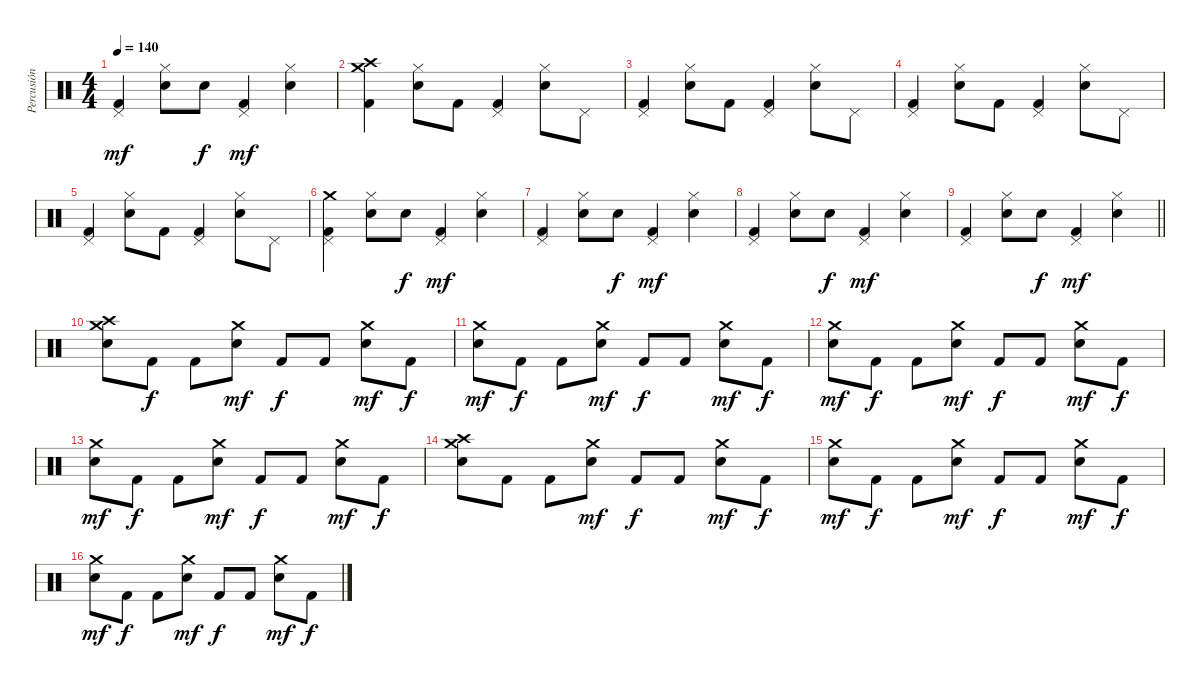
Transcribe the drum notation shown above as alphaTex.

\track ("Percusión" "Percusión") {instrument percussion}
\staff {score}
\articulation defaults
\ts (4 4)
\tempo 140
\clef neutral
\ks c
("Pedal Hi-Hat (hit)" "Kick (hit) 2").4{dy mf} ("Hi-Hat (closed)" "Electric Snare (hit)").8 "Electric Snare (hit)".8{dy f} ("Pedal Hi-Hat (hit)" "Kick (hit) 2").4{dy mf} ("Hi-Hat (closed)" "Electric Snare (hit)").4 |
("Crash high (hit)" "Crash medium (hit)" "Kick (hit) 2").4 ("Hi-Hat (closed)" "Electric Snare (hit)").8 "Kick (hit) 2".8 ("Pedal Hi-Hat (hit)" "Kick (hit) 2").4 ("Hi-Hat (closed)" "Electric Snare (hit)").8 "Pedal Hi-Hat (hit)".8 |
("Pedal Hi-Hat (hit)" "Kick (hit) 2").4 ("Hi-Hat (closed)" "Electric Snare (hit)").8 "Kick (hit) 2".8 ("Pedal Hi-Hat (hit)" "Kick (hit) 2").4 ("Hi-Hat (closed)" "Electric Snare (hit)").8 "Pedal Hi-Hat (hit)".8 |
("Pedal Hi-Hat (hit)" "Kick (hit) 2").4 ("Hi-Hat (closed)" "Electric Snare (hit)").8 "Kick (hit) 2".8 ("Pedal Hi-Hat (hit)" "Kick (hit) 2").4 ("Hi-Hat (closed)" "Electric Snare (hit)").8 "Pedal Hi-Hat (hit)".8 |
("Pedal Hi-Hat (hit)" "Kick (hit) 2").4 ("Hi-Hat (closed)" "Electric Snare (hit)").8 "Kick (hit) 2".8 ("Pedal Hi-Hat (hit)" "Kick (hit) 2").4 ("Hi-Hat (closed)" "Electric Snare (hit)").8 "Pedal Hi-Hat (hit)".8 |
("Pedal Hi-Hat (hit)" "Crash medium (hit)" "Kick (hit) 2").4 ("Hi-Hat (closed)" "Electric Snare (hit)").8 "Electric Snare (hit)".8{dy f} ("Pedal Hi-Hat (hit)" "Kick (hit) 2").4{dy mf} ("Hi-Hat (closed)" "Electric Snare (hit)").4 |
("Pedal Hi-Hat (hit)" "Kick (hit) 2").4 ("Hi-Hat (closed)" "Electric Snare (hit)").8 "Electric Snare (hit)".8{dy f} ("Pedal Hi-Hat (hit)" "Kick (hit) 2").4{dy mf} ("Hi-Hat (closed)" "Electric Snare (hit)").4 |
("Pedal Hi-Hat (hit)" "Kick (hit) 2").4 ("Hi-Hat (closed)" "Electric Snare (hit)").8 "Electric Snare (hit)".8{dy f} ("Pedal Hi-Hat (hit)" "Kick (hit) 2").4{dy mf} ("Hi-Hat (closed)" "Electric Snare (hit)").4 |
\barLineRight lightlight
("Pedal Hi-Hat (hit)" "Kick (hit) 2").4 ("Hi-Hat (closed)" "Electric Snare (hit)").8 "Electric Snare (hit)".8{dy f} ("Pedal Hi-Hat (hit)" "Kick (hit) 2").4{dy mf} ("Hi-Hat (closed)" "Electric Snare (hit)").4 |
("Crash medium (hit)" "Crash high (hit)" "Electric Snare (hit)").8 "Kick (hit) 2".8{dy f} "Kick (hit) 2".8 ("Crash medium (hit)" "Electric Snare (hit)").8{dy mf} "Kick (hit) 2".8{dy f} "Kick (hit) 2".8 ("Crash medium (hit)" "Electric Snare (hit)").8{dy mf} "Kick (hit) 2".8{dy f} |
("Crash medium (hit)" "Electric Snare (hit)").8{dy mf} "Kick (hit) 2".8{dy f} "Kick (hit) 2".8 ("Crash medium (hit)" "Electric Snare (hit)").8{dy mf} "Kick (hit) 2".8{dy f} "Kick (hit) 2".8 ("Crash medium (hit)" "Electric Snare (hit)").8{dy mf} "Kick (hit) 2".8{dy f} |
("Crash medium (hit)" "Electric Snare (hit)").8{dy mf} "Kick (hit) 2".8{dy f} "Kick (hit) 2".8 ("Crash medium (hit)" "Electric Snare (hit)").8{dy mf} "Kick (hit) 2".8{dy f} "Kick (hit) 2".8 ("Crash medium (hit)" "Electric Snare (hit)").8{dy mf} "Kick (hit) 2".8{dy f} |
("Crash medium (hit)" "Electric Snare (hit)").8{dy mf} "Kick (hit) 2".8{dy f} "Kick (hit) 2".8 ("Crash medium (hit)" "Electric Snare (hit)").8{dy mf} "Kick (hit) 2".8{dy f} "Kick (hit) 2".8 ("Crash medium (hit)" "Electric Snare (hit)").8{dy mf} "Kick (hit) 2".8{dy f} |
("Crash medium (hit)" "Crash high (hit)" "Electric Snare (hit)").8 "Kick (hit) 2".8 "Kick (hit) 2".8 ("Crash medium (hit)" "Electric Snare (hit)").8{dy mf} "Kick (hit) 2".8{dy f} "Kick (hit) 2".8 ("Crash medium (hit)" "Electric Snare (hit)").8{dy mf} "Kick (hit) 2".8{dy f} |
("Crash medium (hit)" "Electric Snare (hit)").8{dy mf} "Kick (hit) 2".8{dy f} "Kick (hit) 2".8 ("Crash medium (hit)" "Electric Snare (hit)").8{dy mf} "Kick (hit) 2".8{dy f} "Kick (hit) 2".8 ("Crash medium (hit)" "Electric Snare (hit)").8{dy mf} "Kick (hit) 2".8{dy f} |
("Crash medium (hit)" "Electric Snare (hit)").8{dy mf} "Kick (hit) 2".8{dy f} "Kick (hit) 2".8 ("Crash medium (hit)" "Electric Snare (hit)").8{dy mf} "Kick (hit) 2".8{dy f} "Kick (hit) 2".8 ("Crash medium (hit)" "Electric Snare (hit)").8{dy mf} "Kick (hit) 2".8{dy f}
